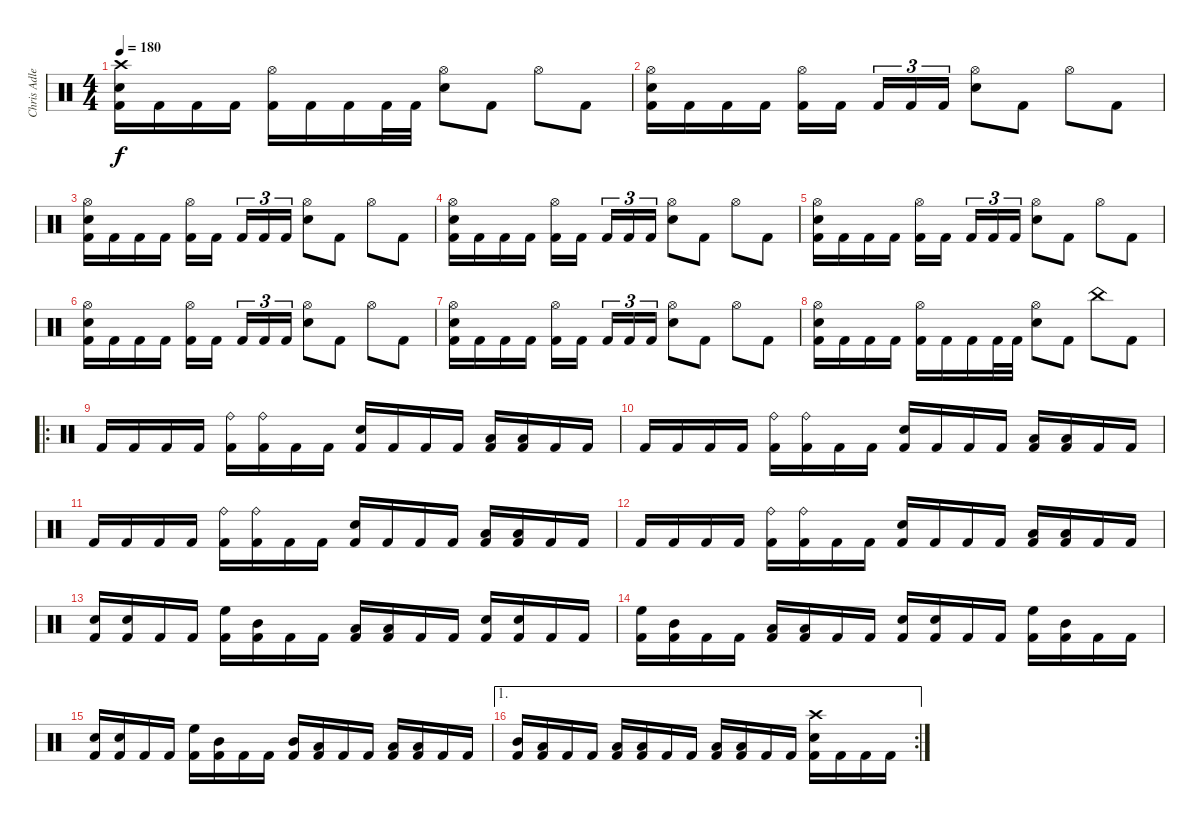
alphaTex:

\track ("Chris Adler" "Chris Adle") {instrument percussion}
\staff {score}
\articulation defaults
\ts (4 4)
\tempo 180
\clef neutral
\ks c
("Crash high (hit)" "Electric Snare (hit)" "Kick (hit) 2").16{dy f} "Kick (hit) 2".16 "Kick (hit) 2".16 "Kick (hit) 2".16 ("Hi-Hat (open)" "Kick (hit) 2").16 "Kick (hit) 2".16 "Kick (hit) 2".16 "Kick (hit) 2".32 "Kick (hit) 2".32 ("Hi-Hat (open)" "Electric Snare (hit)").8 "Kick (hit) 2".8 "Hi-Hat (open)".8 "Kick (hit) 2".8 |
("Hi-Hat (open)" "Electric Snare (hit)" "Kick (hit) 2").16 "Kick (hit) 2".16 "Kick (hit) 2".16 "Kick (hit) 2".16 ("Hi-Hat (open)" "Kick (hit) 2").16 "Kick (hit) 2".16 "Kick (hit) 2".16{tu (3 2)} "Kick (hit) 2".16{tu (3 2)} "Kick (hit) 2".16{tu (3 2)} ("Hi-Hat (open)" "Electric Snare (hit)").8 "Kick (hit) 2".8 "Hi-Hat (open)".8 "Kick (hit) 2".8 |
("Hi-Hat (open)" "Electric Snare (hit)" "Kick (hit) 2").16 "Kick (hit) 2".16 "Kick (hit) 2".16 "Kick (hit) 2".16 ("Hi-Hat (open)" "Kick (hit) 2").16 "Kick (hit) 2".16 "Kick (hit) 2".16{tu (3 2)} "Kick (hit) 2".16{tu (3 2)} "Kick (hit) 2".16{tu (3 2)} ("Hi-Hat (open)" "Electric Snare (hit)").8 "Kick (hit) 2".8 "Hi-Hat (open)".8 "Kick (hit) 2".8 |
("Hi-Hat (open)" "Electric Snare (hit)" "Kick (hit) 2").16 "Kick (hit) 2".16 "Kick (hit) 2".16 "Kick (hit) 2".16 ("Hi-Hat (open)" "Kick (hit) 2").16 "Kick (hit) 2".16 "Kick (hit) 2".16{tu (3 2)} "Kick (hit) 2".16{tu (3 2)} "Kick (hit) 2".16{tu (3 2)} ("Hi-Hat (open)" "Electric Snare (hit)").8 "Kick (hit) 2".8 "Hi-Hat (open)".8 "Kick (hit) 2".8 |
("Hi-Hat (open)" "Electric Snare (hit)" "Kick (hit) 2").16 "Kick (hit) 2".16 "Kick (hit) 2".16 "Kick (hit) 2".16 ("Hi-Hat (open)" "Kick (hit) 2").16 "Kick (hit) 2".16 "Kick (hit) 2".16{tu (3 2)} "Kick (hit) 2".16{tu (3 2)} "Kick (hit) 2".16{tu (3 2)} ("Hi-Hat (open)" "Electric Snare (hit)").8 "Kick (hit) 2".8 "Hi-Hat (open)".8 "Kick (hit) 2".8 |
("Hi-Hat (open)" "Electric Snare (hit)" "Kick (hit) 2").16 "Kick (hit) 2".16 "Kick (hit) 2".16 "Kick (hit) 2".16 ("Hi-Hat (open)" "Kick (hit) 2").16 "Kick (hit) 2".16 "Kick (hit) 2".16{tu (3 2)} "Kick (hit) 2".16{tu (3 2)} "Kick (hit) 2".16{tu (3 2)} ("Hi-Hat (open)" "Electric Snare (hit)").8 "Kick (hit) 2".8 "Hi-Hat (open)".8 "Kick (hit) 2".8 |
("Hi-Hat (open)" "Electric Snare (hit)" "Kick (hit) 2").16 "Kick (hit) 2".16 "Kick (hit) 2".16 "Kick (hit) 2".16 ("Hi-Hat (open)" "Kick (hit) 2").16 "Kick (hit) 2".16 "Kick (hit) 2".16{tu (3 2)} "Kick (hit) 2".16{tu (3 2)} "Kick (hit) 2".16{tu (3 2)} ("Hi-Hat (open)" "Electric Snare (hit)").8 "Kick (hit) 2".8 "Hi-Hat (open)".8 "Kick (hit) 2".8 |
("Hi-Hat (open)" "Electric Snare (hit)" "Kick (hit) 2").16 "Kick (hit) 2".16 "Kick (hit) 2".16 "Kick (hit) 2".16 ("Hi-Hat (open)" "Kick (hit) 2").16 "Kick (hit) 2".16 "Kick (hit) 2".16 "Kick (hit) 2".32 "Kick (hit) 2".32 ("Hi-Hat (open)" "Electric Snare (hit)").8 "Kick (hit) 2".8 "China (hit)".8 "Kick (hit) 2".8 |
\ro "Kick (hit) 2".16 "Kick (hit) 2".16 "Kick (hit) 2".16 "Kick (hit) 2".16
("Ride (bell)" "Kick (hit) 2").16 ("Ride (bell)" "Kick (hit) 2").16 "Kick (hit) 2".16 "Kick (hit) 2".16 ("Electric Snare (hit)" "Kick (hit) 2").16 "Kick (hit) 2".16 "Kick (hit) 2".16 "Kick (hit) 2".16 ("Low Tom (hit)" "Kick (hit) 2").16 ("Low Floor Tom (hit)" "Kick (hit) 2").16 "Kick (hit) 2".16 "Kick (hit) 2".16 |
"Kick (hit) 2".16 "Kick (hit) 2".16 "Kick (hit) 2".16 "Kick (hit) 2".16 ("Ride (bell)" "Kick (hit) 2").16 ("Ride (bell)" "Kick (hit) 2").16 "Kick (hit) 2".16 "Kick (hit) 2".16 ("Electric Snare (hit)" "Kick (hit) 2").16 "Kick (hit) 2".16 "Kick (hit) 2".16 "Kick (hit) 2".16 ("Low Tom (hit)" "Kick (hit) 2").16 ("Low Floor Tom (hit)" "Kick (hit) 2").16 "Kick (hit) 2".16 "Kick (hit) 2".16 |
"Kick (hit) 2".16 "Kick (hit) 2".16 "Kick (hit) 2".16 "Kick (hit) 2".16 ("Ride (bell)" "Kick (hit) 2").16 ("Ride (bell)" "Kick (hit) 2").16 "Kick (hit) 2".16 "Kick (hit) 2".16 ("Electric Snare (hit)" "Kick (hit) 2").16 "Kick (hit) 2".16 "Kick (hit) 2".16 "Kick (hit) 2".16 ("Low Tom (hit)" "Kick (hit) 2").16 ("Low Floor Tom (hit)" "Kick (hit) 2").16 "Kick (hit) 2".16 "Kick (hit) 2".16 |
"Kick (hit) 2".16 "Kick (hit) 2".16 "Kick (hit) 2".16 "Kick (hit) 2".16 ("Ride (bell)" "Kick (hit) 2").16 ("Ride (bell)" "Kick (hit) 2").16 "Kick (hit) 2".16 "Kick (hit) 2".16 ("Electric Snare (hit)" "Kick (hit) 2").16 "Kick (hit) 2".16 "Kick (hit) 2".16 "Kick (hit) 2".16 ("Low Tom (hit)" "Kick (hit) 2").16 ("Low Floor Tom (hit)" "Kick (hit) 2").16 "Kick (hit) 2".16 "Kick (hit) 2".16 |
("Electric Snare (hit)" "Kick (hit) 2").16 ("Electric Snare (hit)" "Kick (hit) 2").16 "Kick (hit) 2".16 "Kick (hit) 2".16 ("High Floor Tom (hit)" "Kick (hit) 2").16 ("Mid Tom (hit)" "Kick (hit) 2").16 "Kick (hit) 2".16 "Kick (hit) 2".16 ("Low Tom (hit)" "Kick (hit) 2").16 ("Low Floor Tom (hit)" "Kick (hit) 2").16 "Kick (hit) 2".16 "Kick (hit) 2".16 ("Electric Snare (hit)" "Kick (hit) 2").16 ("Electric Snare (hit)" "Kick (hit) 2").16 "Kick (hit) 2".16 "Kick (hit) 2".16 |
("High Floor Tom (hit)" "Kick (hit) 2").16 ("Mid Tom (hit)" "Kick (hit) 2").16 "Kick (hit) 2".16 "Kick (hit) 2".16 ("Low Tom (hit)" "Kick (hit) 2").16 ("Low Floor Tom (hit)" "Kick (hit) 2").16 "Kick (hit) 2".16 "Kick (hit) 2".16 ("Electric Snare (hit)" "Kick (hit) 2").16 ("Electric Snare (hit)" "Kick (hit) 2").16 "Kick (hit) 2".16 "Kick (hit) 2".16 ("High Floor Tom (hit)" "Kick (hit) 2").16 ("Mid Tom (hit)" "Kick (hit) 2").16 "Kick (hit) 2".16 "Kick (hit) 2".16 |
("Electric Snare (hit)" "Kick (hit) 2").16 ("Electric Snare (hit)" "Kick (hit) 2").16 "Kick (hit) 2".16 "Kick (hit) 2".16 ("High Floor Tom (hit)" "Kick (hit) 2").16 ("Mid Tom (hit)" "Kick (hit) 2").16 "Kick (hit) 2".16 "Kick (hit) 2".16 ("Mid Tom (hit)" "Kick (hit) 2").16 ("Low Tom (hit)" "Kick (hit) 2").16 "Kick (hit) 2".16 "Kick (hit) 2".16 ("Low Tom (hit)" "Kick (hit) 2").16 ("Low Floor Tom (hit)" "Kick (hit) 2").16 "Kick (hit) 2".16 "Kick (hit) 2".16 |
\ae 1
\rc 2
("Mid Tom (hit)" "Kick (hit) 2").16 ("Low Tom (hit)" "Kick (hit) 2").16 "Kick (hit) 2".16 "Kick (hit) 2".16 ("Low Tom (hit)" "Kick (hit) 2").16 ("Low Floor Tom (hit)" "Kick (hit) 2").16 "Kick (hit) 2".16 "Kick (hit) 2".16 ("Low Tom (hit)" "Kick (hit) 2").16 ("Low Floor Tom (hit)" "Kick (hit) 2").16 "Kick (hit) 2".16 "Kick (hit) 2".16 ("Crash high (hit)" "Electric Snare (hit)" "Kick (hit) 2").16 "Kick (hit) 2".16 "Kick (hit) 2".16 "Kick (hit) 2".16
